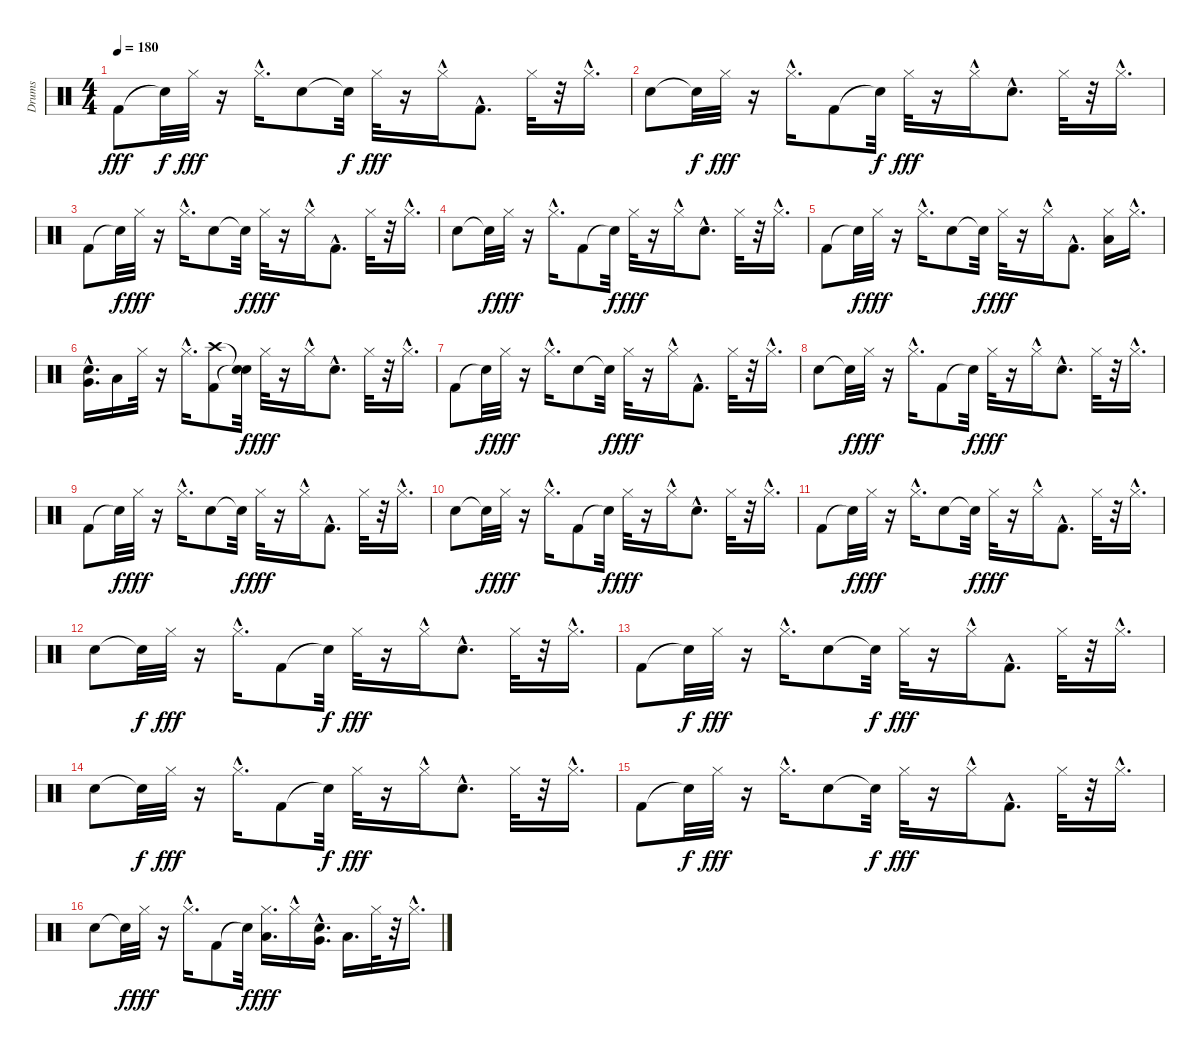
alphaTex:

\track ("Drums" "Drums") {instrument percussion}
\staff {score}
\articulation defaults
\ts (4 4)
\tempo 180
\clef neutral
\ks c "Kick (hit) 2".8{dy fff} "Snare (hit)"{t}.32{dy f} "Hi-Hat (closed)".32{dy fff}
r.16 "Hi-Hat (closed)"{hac}.16{d} "Snare (hit) 2".8 "Snare (hit)"{t}.32{dy f} "Hi-Hat (closed)".32{dy fff} r.16 "Hi-Hat (closed)"{hac}.16 "Kick (hit) 2"{hac}.8{d} "Hi-Hat (closed)".32 r.32 "Hi-Hat (closed)"{hac}.16{d} |
"Snare (hit) 2".8 "Snare (hit)"{t}.32{dy f} "Hi-Hat (closed)".32{dy fff} r.16 "Hi-Hat (closed)"{hac}.16{d} "Kick (hit) 2".8 "Snare (hit)"{t}.32{dy f} "Hi-Hat (closed)".32{dy fff} r.16 "Hi-Hat (closed)"{hac}.16 "Snare (hit) 2"{hac}.8{d} "Hi-Hat (closed)".32 r.32 "Hi-Hat (closed)"{hac}.16{d} |
"Kick (hit) 2".8 "Snare (hit)"{t}.32{dy f} "Hi-Hat (closed)".32{dy fff} r.16 "Hi-Hat (closed)"{hac}.16{d} "Snare (hit) 2".8 "Snare (hit)"{t}.32{dy f} "Hi-Hat (closed)".32{dy fff} r.16 "Hi-Hat (closed)"{hac}.16 "Kick (hit) 2"{hac}.8{d} "Hi-Hat (closed)".32 r.32 "Hi-Hat (closed)"{hac}.16{d} |
"Snare (hit) 2".8 "Snare (hit)"{t}.32{dy f} "Hi-Hat (closed)".32{dy fff} r.16 "Hi-Hat (closed)"{hac}.16{d} "Kick (hit) 2".8 "Snare (hit)"{t}.32{dy f} "Hi-Hat (closed)".32{dy fff} r.16 "Hi-Hat (closed)"{hac}.16 "Snare (hit) 2"{hac}.8{d} "Hi-Hat (closed)".32 r.32 "Hi-Hat (closed)"{hac}.16{d} |
"Kick (hit) 2".8 "Snare (hit)"{t}.32{dy f} "Hi-Hat (closed)".32{dy fff} r.16 "Hi-Hat (closed)"{hac}.16{d} "Snare (hit) 2".8 "Snare (hit)"{t}.32{dy f} "Hi-Hat (closed)".32{dy fff} r.16 "Hi-Hat (closed)"{hac}.16 "Kick (hit) 2"{hac}.8{d} ("Hi-Hat (closed)" "Low Tom (hit)").16 "Hi-Hat (closed)"{hac}.16{d} |
("Snare (hit) 2"{hac} "Very Low Tom (hit)").16{d} "Low Floor Tom (hit)".16 "Hi-Hat (closed)".32 r.16 "Hi-Hat (closed)"{hac}.16{d} ("Kick (hit) 2" "Crash high (hit)").8 ("Snare (hit)"{t} "Snare (hit)"{t}).32{dy f} "Hi-Hat (closed)".32{dy fff} r.16 "Hi-Hat (closed)"{hac}.16 "Snare (hit) 2"{hac}.8{d} "Hi-Hat (closed)".32 r.32 "Hi-Hat (closed)"{hac}.16{d} |
"Kick (hit) 2".8 "Snare (hit)"{t}.32{dy f} "Hi-Hat (closed)".32{dy fff} r.16 "Hi-Hat (closed)"{hac}.16{d} "Snare (hit) 2".8 "Snare (hit)"{t}.32{dy f} "Hi-Hat (closed)".32{dy fff} r.16 "Hi-Hat (closed)"{hac}.16 "Kick (hit) 2"{hac}.8{d} "Hi-Hat (closed)".32 r.32 "Hi-Hat (closed)"{hac}.16{d} |
"Snare (hit) 2".8 "Snare (hit)"{t}.32{dy f} "Hi-Hat (closed)".32{dy fff} r.16 "Hi-Hat (closed)"{hac}.16{d} "Kick (hit) 2".8 "Snare (hit)"{t}.32{dy f} "Hi-Hat (closed)".32{dy fff} r.16 "Hi-Hat (closed)"{hac}.16 "Snare (hit) 2"{hac}.8{d} "Hi-Hat (closed)".32 r.32 "Hi-Hat (closed)"{hac}.16{d} |
"Kick (hit) 2".8 "Snare (hit)"{t}.32{dy f} "Hi-Hat (closed)".32{dy fff} r.16 "Hi-Hat (closed)"{hac}.16{d} "Snare (hit) 2".8 "Snare (hit)"{t}.32{dy f} "Hi-Hat (closed)".32{dy fff} r.16 "Hi-Hat (closed)"{hac}.16 "Kick (hit) 2"{hac}.8{d} "Hi-Hat (closed)".32 r.32 "Hi-Hat (closed)"{hac}.16{d} |
"Snare (hit) 2".8 "Snare (hit)"{t}.32{dy f} "Hi-Hat (closed)".32{dy fff} r.16 "Hi-Hat (closed)"{hac}.16{d} "Kick (hit) 2".8 "Snare (hit)"{t}.32{dy f} "Hi-Hat (closed)".32{dy fff} r.16 "Hi-Hat (closed)"{hac}.16 "Snare (hit) 2"{hac}.8{d} "Hi-Hat (closed)".32 r.32 "Hi-Hat (closed)"{hac}.16{d} |
"Kick (hit) 2".8 "Snare (hit)"{t}.32{dy f} "Hi-Hat (closed)".32{dy fff} r.16 "Hi-Hat (closed)"{hac}.16{d} "Snare (hit) 2".8 "Snare (hit)"{t}.32{dy f} "Hi-Hat (closed)".32{dy fff} r.16 "Hi-Hat (closed)"{hac}.16 "Kick (hit) 2"{hac}.8{d} "Hi-Hat (closed)".32 r.32 "Hi-Hat (closed)"{hac}.16{d} |
"Snare (hit) 2".8 "Snare (hit)"{t}.32{dy f} "Hi-Hat (closed)".32{dy fff} r.16 "Hi-Hat (closed)"{hac}.16{d} "Kick (hit) 2".8 "Snare (hit)"{t}.32{dy f} "Hi-Hat (closed)".32{dy fff} r.16 "Hi-Hat (closed)"{hac}.16 "Snare (hit) 2"{hac}.8{d} "Hi-Hat (closed)".32 r.32 "Hi-Hat (closed)"{hac}.16{d} |
"Kick (hit) 2".8 "Snare (hit)"{t}.32{dy f} "Hi-Hat (closed)".32{dy fff} r.16 "Hi-Hat (closed)"{hac}.16{d} "Snare (hit) 2".8 "Snare (hit)"{t}.32{dy f} "Hi-Hat (closed)".32{dy fff} r.16 "Hi-Hat (closed)"{hac}.16 "Kick (hit) 2"{hac}.8{d} "Hi-Hat (closed)".32 r.32 "Hi-Hat (closed)"{hac}.16{d} |
"Snare (hit) 2".8 "Snare (hit)"{t}.32{dy f} "Hi-Hat (closed)".32{dy fff} r.16 "Hi-Hat (closed)"{hac}.16{d} "Kick (hit) 2".8 "Snare (hit)"{t}.32{dy f} "Hi-Hat (closed)".32{dy fff} r.16 "Hi-Hat (closed)"{hac}.16 "Snare (hit) 2"{hac}.8{d} "Hi-Hat (closed)".32 r.32 "Hi-Hat (closed)"{hac}.16{d} |
"Kick (hit) 2".8 "Snare (hit)"{t}.32{dy f} "Hi-Hat (closed)".32{dy fff} r.16 "Hi-Hat (closed)"{hac}.16{d} "Snare (hit) 2".8 "Snare (hit)"{t}.32{dy f} "Hi-Hat (closed)".32{dy fff} r.16 "Hi-Hat (closed)"{hac}.16 "Kick (hit) 2"{hac}.8{d} "Hi-Hat (closed)".32 r.32 "Hi-Hat (closed)"{hac}.16{d} |
"Snare (hit) 2".8 "Snare (hit)"{t}.32{dy f} "Hi-Hat (closed)".32{dy fff} r.16 "Hi-Hat (closed)"{hac}.16{d} "Kick (hit) 2".8 "Snare (hit)"{t}.32{dy f} ("Hi-Hat (closed)" "Low Tom (hit)").16{d dy fff} "Hi-Hat (closed)"{hac}.16 ("Snare (hit) 2"{hac} "Very Low Tom (hit)").16{d} "Low Floor Tom (hit)".16{d} "Hi-Hat (closed)".32 r.32 "Hi-Hat (closed)"{hac}.16{d}
